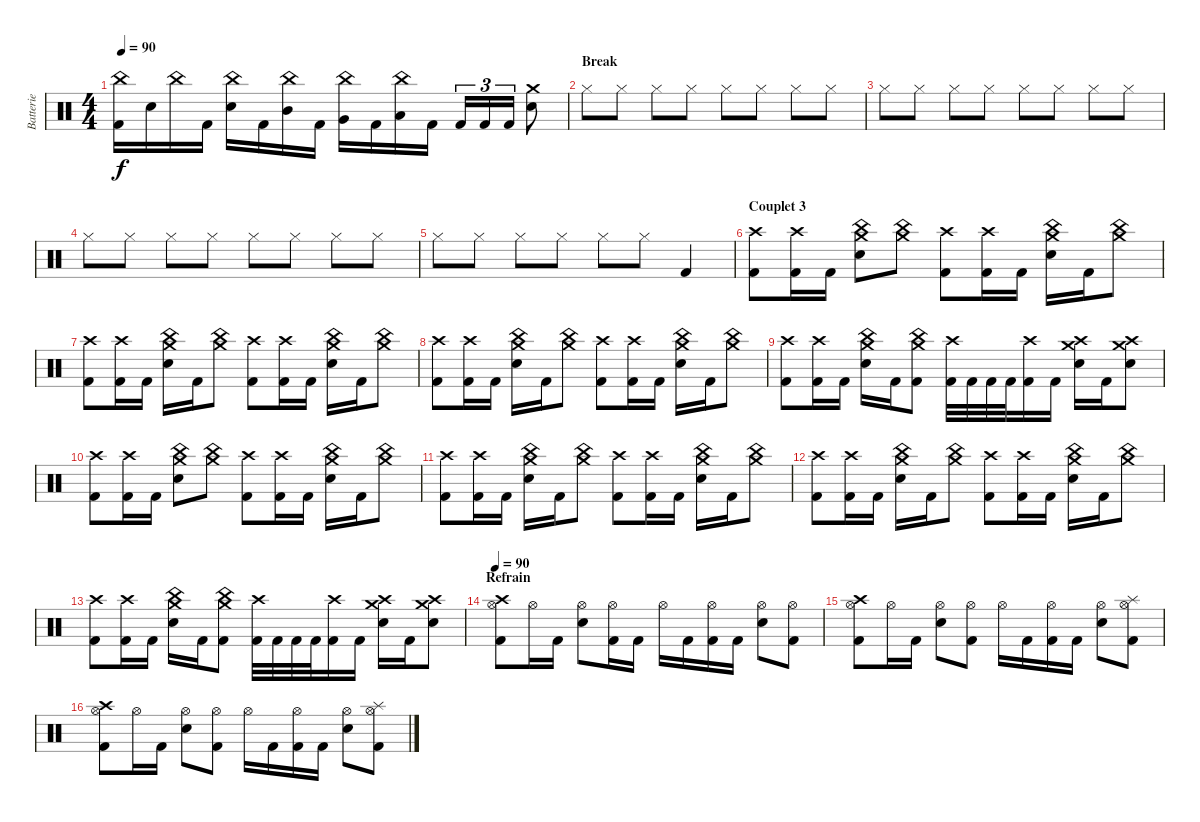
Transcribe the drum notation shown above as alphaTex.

\track ("Batterie" "Batterie") {instrument percussion}
\staff {score}
\articulation defaults
\ts (4 4)
\tempo 90
\clef neutral
\ks c
("China (hit)" "Kick (hit) 2").16{dy f} "Electric Snare (hit)".16 "China (hit)".16 "Kick (hit) 2".16 ("China (hit)" "Electric Snare (hit)").16 "Kick (hit) 2".16 ("China (hit)" "Mid Tom (hit)").16 "Kick (hit) 2".16 ("China (hit)" "Very Low Tom (hit)").16 "Kick (hit) 2".16 ("China (hit)" "Low Floor Tom (hit)").16 "Kick (hit) 2".16 "Kick (hit) 2".16{tu (3 2)} "Kick (hit) 2".16{tu (3 2)} "Kick (hit) 2".16{tu (3 2)} ("Crash medium (hit)" "Snare (hit) 2").8 |
\section ("" "Break")
"Hi-Hat (closed)".8{volume 8} "Hi-Hat (closed)".8 "Hi-Hat (closed)".8 "Hi-Hat (closed)".8 "Hi-Hat (closed)".8 "Hi-Hat (closed)".8 "Hi-Hat (closed)".8 "Hi-Hat (closed)".8 |
"Hi-Hat (closed)".8 "Hi-Hat (closed)".8 "Hi-Hat (closed)".8 "Hi-Hat (closed)".8 "Hi-Hat (closed)".8 "Hi-Hat (closed)".8 "Hi-Hat (closed)".8 "Hi-Hat (closed)".8 |
"Hi-Hat (closed)".8 "Hi-Hat (closed)".8 "Hi-Hat (closed)".8 "Hi-Hat (closed)".8 "Hi-Hat (closed)".8 "Hi-Hat (closed)".8 "Hi-Hat (closed)".8 "Hi-Hat (closed)".8 |
"Hi-Hat (closed)".8 "Hi-Hat (closed)".8 "Hi-Hat (closed)".8 "Hi-Hat (closed)".8 "Hi-Hat (closed)".8 "Hi-Hat (closed)".8 "Kick (hit) 2".4 |
\section ("" "Couplet 3")
("Crash high (hit)" "Kick (hit) 2").8{volume 16} ("Crash high (hit)" "Kick (hit) 2").16 "Kick (hit) 2".16 ("China (hit)" "Crash medium (hit)" "Snare (hit) 2").8 ("China (hit)" "Crash medium (hit)").8 ("Crash high (hit)" "Kick (hit) 2").8 ("Crash high (hit)" "Kick (hit) 2").16 "Kick (hit) 2".16 ("China (hit)" "Crash medium (hit)" "Snare (hit) 2").16 "Kick (hit) 2".16 ("China (hit)" "Crash medium (hit)").8 |
("Crash high (hit)" "Kick (hit) 2").8 ("Crash high (hit)" "Kick (hit) 2").16 "Kick (hit) 2".16 ("China (hit)" "Crash medium (hit)" "Snare (hit) 2").16 "Kick (hit) 2".16 ("China (hit)" "Crash medium (hit)").8 ("Crash high (hit)" "Kick (hit) 2").8 ("Crash high (hit)" "Kick (hit) 2").16 "Kick (hit) 2".16 ("China (hit)" "Crash medium (hit)" "Snare (hit) 2").16 "Kick (hit) 2".16 ("China (hit)" "Crash medium (hit)").8 |
("Crash high (hit)" "Kick (hit) 2").8 ("Crash high (hit)" "Kick (hit) 2").16 "Kick (hit) 2".16 ("China (hit)" "Crash medium (hit)" "Snare (hit) 2").16 "Kick (hit) 2".16 ("China (hit)" "Crash medium (hit)").8 ("Crash high (hit)" "Kick (hit) 2").8 ("Crash high (hit)" "Kick (hit) 2").16 "Kick (hit) 2".16 ("China (hit)" "Crash medium (hit)" "Snare (hit) 2").16 "Kick (hit) 2".16 ("China (hit)" "Crash medium (hit)").8 |
("Crash high (hit)" "Kick (hit) 2").8 ("Crash high (hit)" "Kick (hit) 2").16 "Kick (hit) 2".16 ("China (hit)" "Crash medium (hit)" "Snare (hit) 2").16 "Kick (hit) 2".16 ("China (hit)" "Crash medium (hit)" "Kick (hit) 2").8 ("Crash high (hit)" "Kick (hit) 2").32 "Kick (hit) 2".32 "Kick (hit) 2".32 "Kick (hit) 2".32 ("Crash high (hit)" "Kick (hit) 2").16 "Kick (hit) 2".16 ("Crash high (hit)" "Crash medium (hit)" "Snare (hit) 2").16 "Kick (hit) 2".16 ("Crash high (hit)" "Crash medium (hit)" "Snare (hit) 2").8 |
("Crash high (hit)" "Kick (hit) 2").8 ("Crash high (hit)" "Kick (hit) 2").16 "Kick (hit) 2".16 ("China (hit)" "Crash medium (hit)" "Snare (hit) 2").8 ("China (hit)" "Crash medium (hit)").8 ("Crash high (hit)" "Kick (hit) 2").8 ("Crash high (hit)" "Kick (hit) 2").16 "Kick (hit) 2".16 ("China (hit)" "Crash medium (hit)" "Snare (hit) 2").16 "Kick (hit) 2".16 ("China (hit)" "Crash medium (hit)").8 |
("Crash high (hit)" "Kick (hit) 2").8 ("Crash high (hit)" "Kick (hit) 2").16 "Kick (hit) 2".16 ("China (hit)" "Crash medium (hit)" "Snare (hit) 2").16 "Kick (hit) 2".16 ("China (hit)" "Crash medium (hit)").8 ("Crash high (hit)" "Kick (hit) 2").8 ("Crash high (hit)" "Kick (hit) 2").16 "Kick (hit) 2".16 ("China (hit)" "Crash medium (hit)" "Snare (hit) 2").16 "Kick (hit) 2".16 ("China (hit)" "Crash medium (hit)").8 |
("Crash high (hit)" "Kick (hit) 2").8 ("Crash high (hit)" "Kick (hit) 2").16 "Kick (hit) 2".16 ("China (hit)" "Crash medium (hit)" "Snare (hit) 2").16 "Kick (hit) 2".16 ("China (hit)" "Crash medium (hit)").8 ("Crash high (hit)" "Kick (hit) 2").8 ("Crash high (hit)" "Kick (hit) 2").16 "Kick (hit) 2".16 ("China (hit)" "Crash medium (hit)" "Snare (hit) 2").16 "Kick (hit) 2".16 ("China (hit)" "Crash medium (hit)").8 |
("Crash high (hit)" "Kick (hit) 2").8 ("Crash high (hit)" "Kick (hit) 2").16 "Kick (hit) 2".16 ("China (hit)" "Crash medium (hit)" "Snare (hit) 2").16 "Kick (hit) 2".16 ("China (hit)" "Crash medium (hit)" "Kick (hit) 2").8 ("Crash high (hit)" "Kick (hit) 2").32 "Kick (hit) 2".32 "Kick (hit) 2".32 "Kick (hit) 2".32 ("Crash high (hit)" "Kick (hit) 2").16 "Kick (hit) 2".16 ("Crash high (hit)" "Crash medium (hit)" "Snare (hit) 2").16 "Kick (hit) 2".16 ("Crash high (hit)" "Crash medium (hit)" "Snare (hit) 2").8 |
\section ("" "Refrain")
\tempo 90
("Hi-Hat (open)" "Crash high (hit)" "Kick (hit) 2").8 "Hi-Hat (open)".16 "Kick (hit) 2".16 ("Hi-Hat (open)" "Electric Snare (hit)").8 ("Hi-Hat (open)" "Kick (hit) 2").16 "Kick (hit) 2".16 "Hi-Hat (open)".16 "Kick (hit) 2".16 ("Hi-Hat (open)" "Kick (hit) 2").16 "Kick (hit) 2".16 ("Hi-Hat (open)" "Electric Snare (hit)").8 ("Hi-Hat (open)" "Kick (hit) 2").8 |
("Hi-Hat (open)" "Crash high (hit)" "Kick (hit) 2").8 "Hi-Hat (open)".16 "Kick (hit) 2".16 ("Hi-Hat (open)" "Electric Snare (hit)").8 ("Hi-Hat (open)" "Kick (hit) 2").8 "Hi-Hat (open)".16 "Kick (hit) 2".16 ("Hi-Hat (open)" "Kick (hit) 2").16 "Kick (hit) 2".16 ("Hi-Hat (open)" "Electric Snare (hit)").8 ("Hi-Hat (open)" "Splash (hit)" "Kick (hit) 2").8 |
("Hi-Hat (open)" "Crash high (hit)" "Kick (hit) 2").8 "Hi-Hat (open)".16 "Kick (hit) 2".16 ("Hi-Hat (open)" "Electric Snare (hit)").8 ("Hi-Hat (open)" "Kick (hit) 2").8 "Hi-Hat (open)".16 "Kick (hit) 2".16 ("Hi-Hat (open)" "Kick (hit) 2").16 "Kick (hit) 2".16 ("Hi-Hat (open)" "Electric Snare (hit)").8 ("Hi-Hat (open)" "Splash (hit)" "Kick (hit) 2").8
